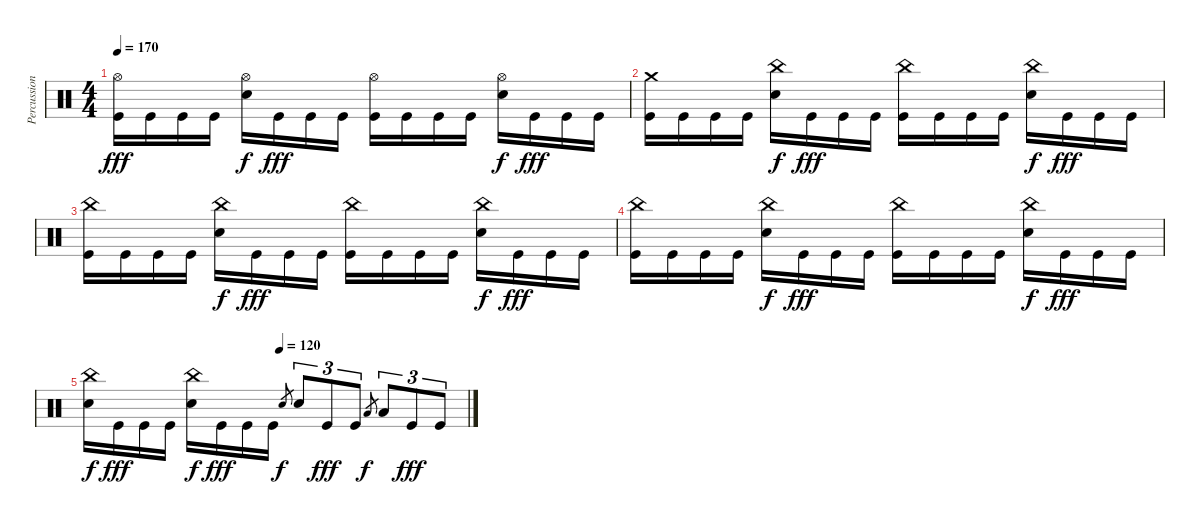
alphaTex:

\track ("Percussion" "Percussion") {instrument percussion}
\staff {score}
\articulation defaults
\ts (4 4)
\tempo 170
\clef neutral
\ks c
("Hi-Hat (open)" "Kick (hit)").16{dy fff} "Kick (hit)".16 "Kick (hit)".16 "Kick (hit)".16 ("Hi-Hat (open)" "Electric Snare (hit)").16{dy f} "Kick (hit)".16{dy fff} "Kick (hit)".16 "Kick (hit)".16 ("Hi-Hat (open)" "Kick (hit)").16 "Kick (hit)".16 "Kick (hit)".16 "Kick (hit)".16 ("Hi-Hat (open)" "Electric Snare (hit)").16{dy f} "Kick (hit)".16{dy fff} "Kick (hit)".16 "Kick (hit)".16 |
("Crash medium (hit)" "Kick (hit)").16 "Kick (hit)".16 "Kick (hit)".16 "Kick (hit)".16 ("China (hit)" "Electric Snare (hit)").16{dy f} "Kick (hit)".16{dy fff} "Kick (hit)".16 "Kick (hit)".16 ("China (hit)" "Kick (hit)").16 "Kick (hit)".16 "Kick (hit)".16 "Kick (hit)".16 ("China (hit)" "Electric Snare (hit)").16{dy f} "Kick (hit)".16{dy fff} "Kick (hit)".16 "Kick (hit)".16 |
("China (hit)" "Kick (hit)").16 "Kick (hit)".16 "Kick (hit)".16 "Kick (hit)".16 ("China (hit)" "Electric Snare (hit)").16{dy f} "Kick (hit)".16{dy fff} "Kick (hit)".16 "Kick (hit)".16 ("China (hit)" "Kick (hit)").16 "Kick (hit)".16 "Kick (hit)".16 "Kick (hit)".16 ("China (hit)" "Electric Snare (hit)").16{dy f} "Kick (hit)".16{dy fff} "Kick (hit)".16 "Kick (hit)".16 |
("China (hit)" "Kick (hit)").16 "Kick (hit)".16 "Kick (hit)".16 "Kick (hit)".16 ("China (hit)" "Electric Snare (hit)").16{dy f} "Kick (hit)".16{dy fff} "Kick (hit)".16 "Kick (hit)".16 ("China (hit)" "Kick (hit)").16 "Kick (hit)".16 "Kick (hit)".16 "Kick (hit)".16 ("China (hit)" "Electric Snare (hit)").16{dy f} "Kick (hit)".16{dy fff} "Kick (hit)".16 "Kick (hit)".16 |
\tempo (120 0.5)
("China (hit)" "Electric Snare (hit)").16{dy f} "Kick (hit)".16{dy fff} "Kick (hit)".16 "Kick (hit)".16 ("China (hit)" "Electric Snare (hit)").16{dy f} "Kick (hit)".16{dy fff} "Kick (hit)".16 "Kick (hit)".16 "Electric Snare (hit)".8{gr dy f} "Electric Snare (hit)".8{tu (3 2)} "Kick (hit)".8{tu (3 2) dy fff} "Kick (hit)".8{tu (3 2)} "Low Floor Tom (hit)".8{gr dy f} "Low Floor Tom (hit)".8{tu (3 2)} "Kick (hit)".8{tu (3 2) dy fff} "Kick (hit)".8{tu (3 2)}
